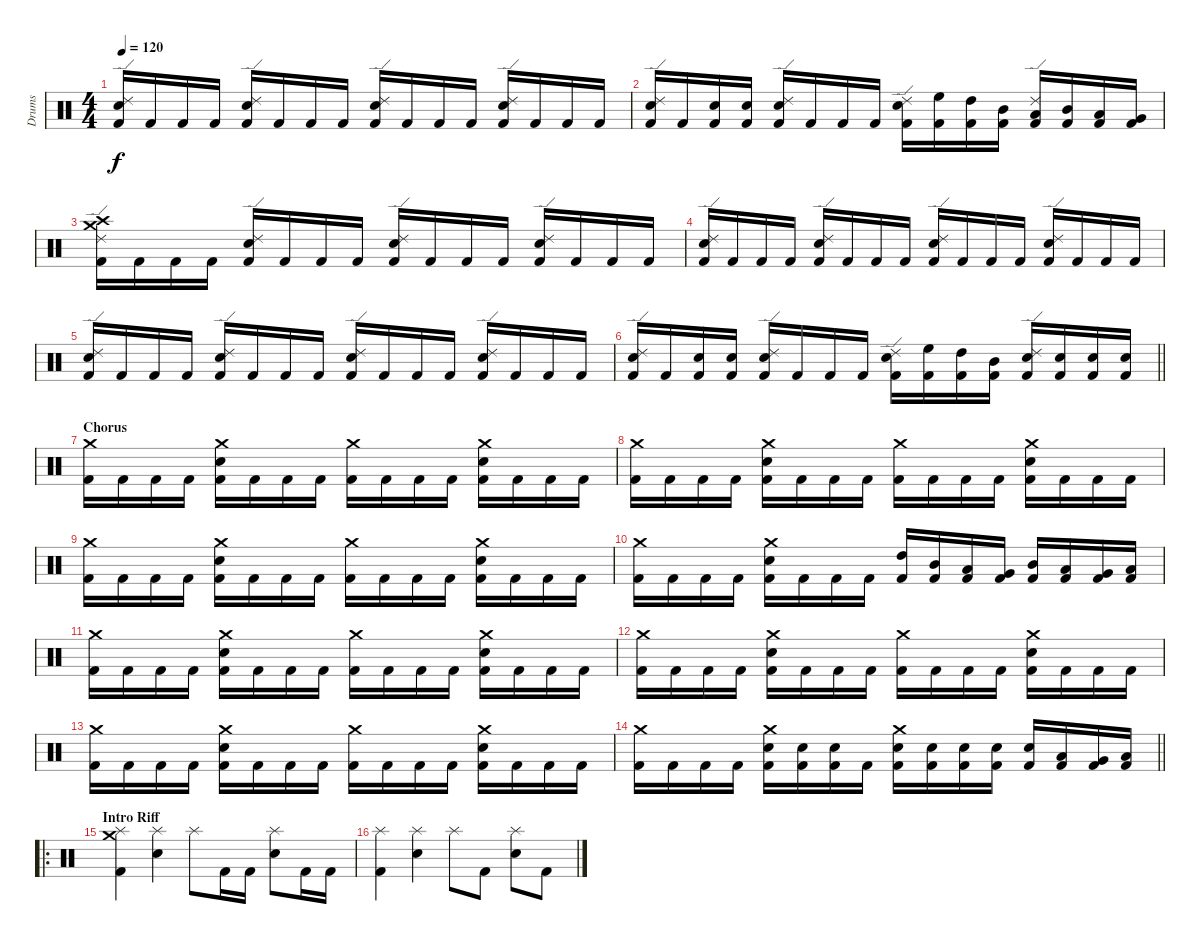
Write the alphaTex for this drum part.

\track ("Drums" "Drums") {instrument percussion}
\staff {score}
\articulation defaults
\ts (4 4)
\tempo 120
\clef neutral
\ks c
("Kick (hit) 2" "Snare (hit) 2" "Ride (edge) 2").16{dy f} "Kick (hit) 2".16 "Kick (hit) 2".16 "Kick (hit) 2".16 ("Kick (hit) 2" "Snare (hit) 2" "Ride (edge) 2").16 "Kick (hit) 2".16 "Kick (hit) 2".16 "Kick (hit) 2".16 ("Kick (hit) 2" "Snare (hit) 2" "Ride (edge) 2").16 "Kick (hit) 2".16 "Kick (hit) 2".16 "Kick (hit) 2".16 ("Kick (hit) 2" "Snare (hit) 2" "Ride (edge) 2").16 "Kick (hit) 2".16 "Kick (hit) 2".16 "Kick (hit) 2".16 |
("Kick (hit) 2" "Snare (hit) 2" "Ride (edge) 2").16 "Kick (hit) 2".16 ("Kick (hit) 2" "Snare (hit) 2").16 ("Kick (hit) 2" "Snare (hit) 2").16 ("Kick (hit) 2" "Snare (hit) 2" "Ride (edge) 2").16 "Kick (hit) 2".16 "Kick (hit) 2".16 "Kick (hit) 2".16 ("Kick (hit) 2" "Snare (hit) 2" "Ride (edge) 2").16 ("Kick (hit) 2" "High Floor Tom (hit)").16 ("Kick (hit) 2" "High Tom (hit)").16 ("Kick (hit) 2" "Mid Tom (hit)").16 ("Kick (hit) 2" "Ride (edge) 2" "Low Tom (hit)").16 ("Kick (hit) 2" "Mid Tom (hit)").16 ("Kick (hit) 2" "Low Tom (hit)").16 ("Kick (hit) 2" "Very Low Tom (hit)").16 |
("Kick (hit) 2" "Ride (edge) 2" "Crash high (hit)" "Crash medium (hit)").16 "Kick (hit) 2".16 "Kick (hit) 2".16 "Kick (hit) 2".16 ("Kick (hit) 2" "Snare (hit) 2" "Ride (edge) 2").16 "Kick (hit) 2".16 "Kick (hit) 2".16 "Kick (hit) 2".16 ("Kick (hit) 2" "Snare (hit) 2" "Ride (edge) 2").16 "Kick (hit) 2".16 "Kick (hit) 2".16 "Kick (hit) 2".16 ("Kick (hit) 2" "Snare (hit) 2" "Ride (edge) 2").16 "Kick (hit) 2".16 "Kick (hit) 2".16 "Kick (hit) 2".16 |
("Kick (hit) 2" "Snare (hit) 2" "Ride (edge) 2").16 "Kick (hit) 2".16 "Kick (hit) 2".16 "Kick (hit) 2".16 ("Kick (hit) 2" "Snare (hit) 2" "Ride (edge) 2").16 "Kick (hit) 2".16 "Kick (hit) 2".16 "Kick (hit) 2".16 ("Kick (hit) 2" "Snare (hit) 2" "Ride (edge) 2").16 "Kick (hit) 2".16 "Kick (hit) 2".16 "Kick (hit) 2".16 ("Kick (hit) 2" "Snare (hit) 2" "Ride (edge) 2").16 "Kick (hit) 2".16 "Kick (hit) 2".16 "Kick (hit) 2".16 |
("Kick (hit) 2" "Snare (hit) 2" "Ride (edge) 2").16 "Kick (hit) 2".16 "Kick (hit) 2".16 "Kick (hit) 2".16 ("Kick (hit) 2" "Snare (hit) 2" "Ride (edge) 2").16 "Kick (hit) 2".16 "Kick (hit) 2".16 "Kick (hit) 2".16 ("Kick (hit) 2" "Snare (hit) 2" "Ride (edge) 2").16 "Kick (hit) 2".16 "Kick (hit) 2".16 "Kick (hit) 2".16 ("Kick (hit) 2" "Snare (hit) 2" "Ride (edge) 2").16 "Kick (hit) 2".16 "Kick (hit) 2".16 "Kick (hit) 2".16 |
\barLineRight lightlight
("Kick (hit) 2" "Snare (hit) 2" "Ride (edge) 2").16 "Kick (hit) 2".16 ("Kick (hit) 2" "Snare (hit) 2").16 ("Kick (hit) 2" "Snare (hit) 2").16 ("Kick (hit) 2" "Snare (hit) 2" "Ride (edge) 2").16 "Kick (hit) 2".16 "Kick (hit) 2".16 "Kick (hit) 2".16 ("Kick (hit) 2" "Snare (hit) 2" "Ride (edge) 2").16 ("Kick (hit) 2" "High Floor Tom (hit)").16 ("Kick (hit) 2" "High Tom (hit)").16 ("Kick (hit) 2" "Mid Tom (hit)").16 ("Kick (hit) 2" "Snare (hit) 2" "Ride (edge) 2").16 ("Kick (hit) 2" "Snare (hit) 2").16 ("Kick (hit) 2" "Snare (hit) 2").16 ("Kick (hit) 2" "Snare (hit) 2").16 |
\section ("" "Chorus")
("Kick (hit) 2" "Crash medium (hit)").16 "Kick (hit) 2".16 "Kick (hit) 2".16 "Kick (hit) 2".16 ("Kick (hit) 2" "Snare (hit) 2" "Crash medium (hit)").16 "Kick (hit) 2".16 "Kick (hit) 2".16 "Kick (hit) 2".16 ("Kick (hit) 2" "Crash medium (hit)").16 "Kick (hit) 2".16 "Kick (hit) 2".16 "Kick (hit) 2".16 ("Kick (hit) 2" "Snare (hit) 2" "Crash medium (hit)").16 "Kick (hit) 2".16 "Kick (hit) 2".16 "Kick (hit) 2".16 |
("Kick (hit) 2" "Crash medium (hit)").16 "Kick (hit) 2".16 "Kick (hit) 2".16 "Kick (hit) 2".16 ("Kick (hit) 2" "Snare (hit) 2" "Crash medium (hit)").16 "Kick (hit) 2".16 "Kick (hit) 2".16 "Kick (hit) 2".16 ("Kick (hit) 2" "Crash medium (hit)").16 "Kick (hit) 2".16 "Kick (hit) 2".16 "Kick (hit) 2".16 ("Kick (hit) 2" "Snare (hit) 2" "Crash medium (hit)").16 "Kick (hit) 2".16 "Kick (hit) 2".16 "Kick (hit) 2".16 |
("Kick (hit) 2" "Crash medium (hit)").16 "Kick (hit) 2".16 "Kick (hit) 2".16 "Kick (hit) 2".16 ("Kick (hit) 2" "Snare (hit) 2" "Crash medium (hit)").16 "Kick (hit) 2".16 "Kick (hit) 2".16 "Kick (hit) 2".16 ("Kick (hit) 2" "Crash medium (hit)").16 "Kick (hit) 2".16 "Kick (hit) 2".16 "Kick (hit) 2".16 ("Kick (hit) 2" "Snare (hit) 2" "Crash medium (hit)").16 "Kick (hit) 2".16 "Kick (hit) 2".16 "Kick (hit) 2".16 |
("Kick (hit) 2" "Crash medium (hit)").16 "Kick (hit) 2".16 "Kick (hit) 2".16 "Kick (hit) 2".16 ("Kick (hit) 2" "Snare (hit) 2" "Crash medium (hit)").16 "Kick (hit) 2".16 "Kick (hit) 2".16 "Kick (hit) 2".16 ("Kick (hit) 2" "High Tom (hit)").16 ("Kick (hit) 2" "Mid Tom (hit)").16 ("Kick (hit) 2" "Low Tom (hit)").16 ("Kick (hit) 2" "Very Low Tom (hit)").16 ("Kick (hit) 2" "Mid Tom (hit)").16 ("Kick (hit) 2" "Low Tom (hit)").16 ("Kick (hit) 2" "Very Low Tom (hit)").16 ("Kick (hit) 2" "Low Floor Tom (hit)").16 |
("Kick (hit) 2" "Crash medium (hit)").16 "Kick (hit) 2".16 "Kick (hit) 2".16 "Kick (hit) 2".16 ("Kick (hit) 2" "Snare (hit) 2" "Crash medium (hit)").16 "Kick (hit) 2".16 "Kick (hit) 2".16 "Kick (hit) 2".16 ("Kick (hit) 2" "Crash medium (hit)").16 "Kick (hit) 2".16 "Kick (hit) 2".16 "Kick (hit) 2".16 ("Kick (hit) 2" "Snare (hit) 2" "Crash medium (hit)").16 "Kick (hit) 2".16 "Kick (hit) 2".16 "Kick (hit) 2".16 |
("Kick (hit) 2" "Crash medium (hit)").16 "Kick (hit) 2".16 "Kick (hit) 2".16 "Kick (hit) 2".16 ("Kick (hit) 2" "Snare (hit) 2" "Crash medium (hit)").16 "Kick (hit) 2".16 "Kick (hit) 2".16 "Kick (hit) 2".16 ("Kick (hit) 2" "Crash medium (hit)").16 "Kick (hit) 2".16 "Kick (hit) 2".16 "Kick (hit) 2".16 ("Kick (hit) 2" "Snare (hit) 2" "Crash medium (hit)").16 "Kick (hit) 2".16 "Kick (hit) 2".16 "Kick (hit) 2".16 |
("Kick (hit) 2" "Crash medium (hit)").16 "Kick (hit) 2".16 "Kick (hit) 2".16 "Kick (hit) 2".16 ("Kick (hit) 2" "Snare (hit) 2" "Crash medium (hit)").16 "Kick (hit) 2".16 "Kick (hit) 2".16 "Kick (hit) 2".16 ("Kick (hit) 2" "Crash medium (hit)").16 "Kick (hit) 2".16 "Kick (hit) 2".16 "Kick (hit) 2".16 ("Kick (hit) 2" "Snare (hit) 2" "Crash medium (hit)").16 "Kick (hit) 2".16 "Kick (hit) 2".16 "Kick (hit) 2".16 |
\barLineRight lightlight
("Kick (hit) 2" "Crash medium (hit)").16 "Kick (hit) 2".16 "Kick (hit) 2".16 "Kick (hit) 2".16 ("Kick (hit) 2" "Snare (hit) 2" "Crash medium (hit)").16 ("Kick (hit) 2" "Snare (hit) 2").16 ("Kick (hit) 2" "Snare (hit) 2").16 "Kick (hit) 2".16 ("Kick (hit) 2" "Snare (hit) 2" "Crash medium (hit)").16 ("Kick (hit) 2" "Snare (hit) 2").16 ("Kick (hit) 2" "Snare (hit) 2").16 ("Kick (hit) 2" "Snare (hit) 2").16 ("Kick (hit) 2" "Snare (hit) 2").16 ("Kick (hit) 2" "Low Tom (hit)").16 ("Kick (hit) 2" "Very Low Tom (hit)").16 ("Kick (hit) 2" "Low Floor Tom (hit)").16 |
\ro
\section ("" "Intro Riff")
("Kick (hit) 2" "Splash (hit)" "Crash medium (hit)").4 ("Snare (hit) 2" "Splash (hit)").4 "Splash (hit)".8 "Kick (hit) 2".16 "Kick (hit) 2".16 ("Snare (hit) 2" "Splash (hit)").8 "Kick (hit) 2".16 "Kick (hit) 2".16 |
("Kick (hit) 2" "Splash (hit)").4 ("Snare (hit) 2" "Splash (hit)").4 "Splash (hit)".8 "Kick (hit) 2".8 ("Snare (hit) 2" "Splash (hit)").8 "Kick (hit) 2".8
